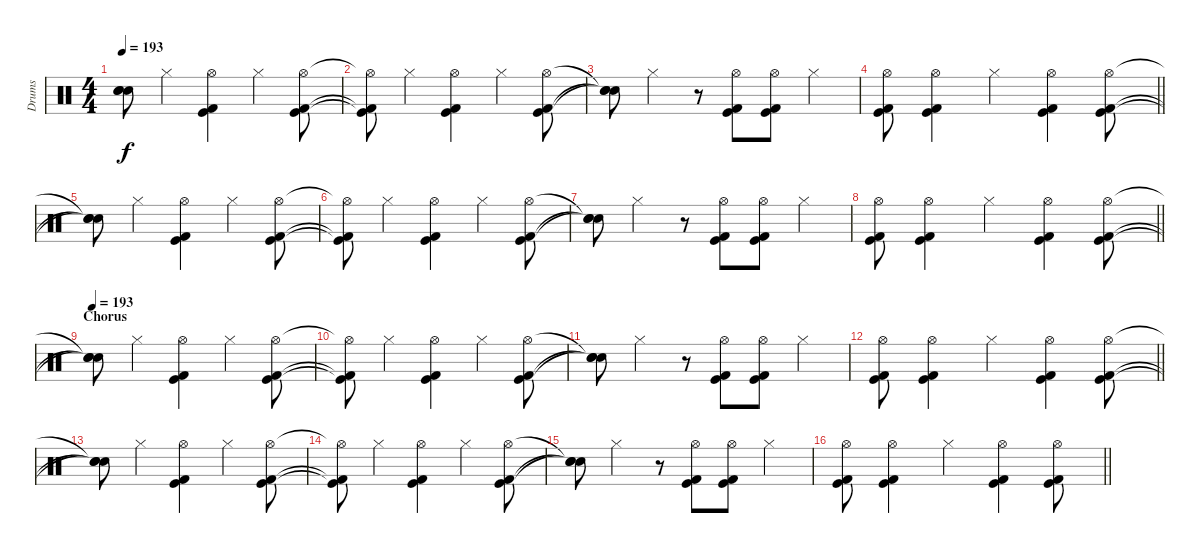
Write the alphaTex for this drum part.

\track ("Drums" "Drums") {instrument percussion}
\staff
\articulation defaults
\ts (4 4)
\tempo 193
\clef neutral
\ks c
("Snare (hit)"{t} "Snare (hit)"{t} "Snare (hit)"{t}).8{dy f} "Hi-Hat (closed)".4 ("Hi-Hat (open)" "Kick (hit)" "Kick (hit) 2").4 "Hi-Hat (closed)".4 ("Hi-Hat (open)" "Kick (hit)" "Kick (hit) 2").8 |
("Hi-Hat (open)"{t} "Kick (hit)"{t} "Kick (hit) 2"{t}).8 "Hi-Hat (closed)".4 ("Hi-Hat (open)" "Kick (hit)" "Kick (hit) 2").4 "Hi-Hat (closed)".4 ("Hi-Hat (open)" "Kick (hit)" "Kick (hit) 2").8 |
("Snare (hit)"{t} "Snare (hit)"{t} "Snare (hit)"{t}).8 "Hi-Hat (closed)".4 r.8 ("Hi-Hat (open)" "Kick (hit)" "Kick (hit) 2").8 ("Hi-Hat (open)" "Kick (hit)" "Kick (hit) 2").8 "Hi-Hat (closed)".4 |
\barLineRight lightlight
("Hi-Hat (open)" "Kick (hit)" "Kick (hit) 2").8 ("Hi-Hat (open)" "Kick (hit)" "Kick (hit) 2").4 "Hi-Hat (closed)".4 ("Hi-Hat (open)" "Kick (hit)" "Kick (hit) 2").4 ("Hi-Hat (open)" "Kick (hit)" "Kick (hit) 2").8 |
("Snare (hit)"{t} "Snare (hit)"{t} "Snare (hit)"{t}).8 "Hi-Hat (closed)".4 ("Hi-Hat (open)" "Kick (hit)" "Kick (hit) 2").4 "Hi-Hat (closed)".4 ("Hi-Hat (open)" "Kick (hit)" "Kick (hit) 2").8 |
("Hi-Hat (open)"{t} "Kick (hit)"{t} "Kick (hit) 2"{t}).8 "Hi-Hat (closed)".4 ("Hi-Hat (open)" "Kick (hit)" "Kick (hit) 2").4 "Hi-Hat (closed)".4 ("Hi-Hat (open)" "Kick (hit)" "Kick (hit) 2").8 |
("Snare (hit)"{t} "Snare (hit)"{t} "Snare (hit)"{t}).8 "Hi-Hat (closed)".4 r.8 ("Hi-Hat (open)" "Kick (hit)" "Kick (hit) 2").8 ("Hi-Hat (open)" "Kick (hit)" "Kick (hit) 2").8 "Hi-Hat (closed)".4 |
\barLineRight lightlight
("Hi-Hat (open)" "Kick (hit)" "Kick (hit) 2").8 ("Hi-Hat (open)" "Kick (hit)" "Kick (hit) 2").4 "Hi-Hat (closed)".4 ("Hi-Hat (open)" "Kick (hit)" "Kick (hit) 2").4 ("Hi-Hat (open)" "Kick (hit)" "Kick (hit) 2").8 |
\section ("" "Chorus")
\tempo 193
("Snare (hit)"{t} "Snare (hit)"{t} "Snare (hit)"{t}).8 "Hi-Hat (closed)".4 ("Hi-Hat (open)" "Kick (hit)" "Kick (hit) 2").4 "Hi-Hat (closed)".4 ("Hi-Hat (open)" "Kick (hit)" "Kick (hit) 2").8 |
("Hi-Hat (open)"{t} "Kick (hit)"{t} "Kick (hit) 2"{t}).8 "Hi-Hat (closed)".4 ("Hi-Hat (open)" "Kick (hit)" "Kick (hit) 2").4 "Hi-Hat (closed)".4 ("Hi-Hat (open)" "Kick (hit)" "Kick (hit) 2").8 |
("Snare (hit)"{t} "Snare (hit)"{t} "Snare (hit)"{t}).8 "Hi-Hat (closed)".4 r.8 ("Hi-Hat (open)" "Kick (hit)" "Kick (hit) 2").8 ("Hi-Hat (open)" "Kick (hit)" "Kick (hit) 2").8 "Hi-Hat (closed)".4 |
\barLineRight lightlight
("Hi-Hat (open)" "Kick (hit)" "Kick (hit) 2").8 ("Hi-Hat (open)" "Kick (hit)" "Kick (hit) 2").4 "Hi-Hat (closed)".4 ("Hi-Hat (open)" "Kick (hit)" "Kick (hit) 2").4 ("Hi-Hat (open)" "Kick (hit)" "Kick (hit) 2").8 |
("Snare (hit)"{t} "Snare (hit)"{t} "Snare (hit)"{t}).8 "Hi-Hat (closed)".4 ("Hi-Hat (open)" "Kick (hit)" "Kick (hit) 2").4 "Hi-Hat (closed)".4 ("Hi-Hat (open)" "Kick (hit)" "Kick (hit) 2").8 |
("Hi-Hat (open)"{t} "Kick (hit)"{t} "Kick (hit) 2"{t}).8 "Hi-Hat (closed)".4 ("Hi-Hat (open)" "Kick (hit)" "Kick (hit) 2").4 "Hi-Hat (closed)".4 ("Hi-Hat (open)" "Kick (hit)" "Kick (hit) 2").8 |
("Snare (hit)"{t} "Snare (hit)"{t} "Snare (hit)"{t}).8 "Hi-Hat (closed)".4 r.8 ("Hi-Hat (open)" "Kick (hit)" "Kick (hit) 2").8 ("Hi-Hat (open)" "Kick (hit)" "Kick (hit) 2").8 "Hi-Hat (closed)".4 |
\barLineRight lightlight
("Hi-Hat (open)" "Kick (hit)" "Kick (hit) 2").8 ("Hi-Hat (open)" "Kick (hit)" "Kick (hit) 2").4 "Hi-Hat (closed)".4 ("Hi-Hat (open)" "Kick (hit)" "Kick (hit) 2").4 ("Hi-Hat (open)" "Kick (hit)" "Kick (hit) 2").8
